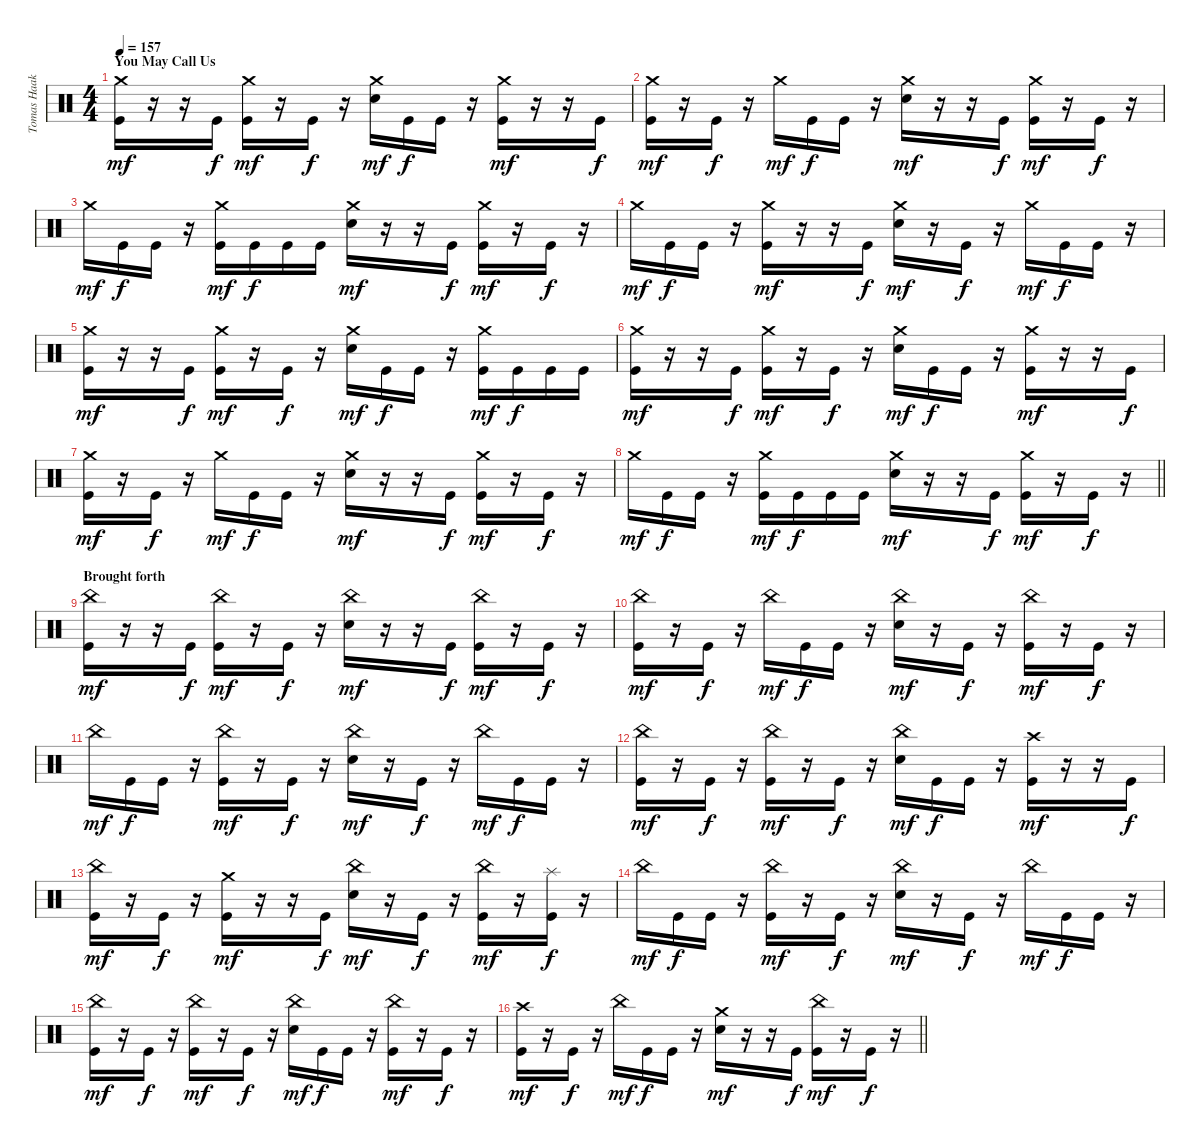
\track ("Tomas Haake (Drums)" "Tomas Haak") {instrument percussion}
\staff {score}
\articulation defaults
\ts (4 4)
\section ("" "You May Call Us")
\tempo 157
\clef neutral
\ks c
("Crash medium (hit)" "Kick (hit)").16{dy mf} r.16 r.16 "Kick (hit)".16{dy f} ("Crash medium (hit)" "Kick (hit)").16{dy mf} r.16 "Kick (hit)".16{dy f} r.16 ("Crash medium (hit)" "Electric Snare (hit)").16{dy mf} "Kick (hit)".16{dy f} "Kick (hit)".16 r.16 ("Crash medium (hit)" "Kick (hit)").16{dy mf} r.16 r.16 "Kick (hit)".16{dy f} |
("Crash medium (hit)" "Kick (hit)").16{dy mf} r.16 "Kick (hit)".16{dy f} r.16 "Crash medium (hit)".16{dy mf} "Kick (hit)".16{dy f} "Kick (hit)".16 r.16 ("Crash medium (hit)" "Electric Snare (hit)").16{dy mf} r.16 r.16 "Kick (hit)".16{dy f} ("Crash medium (hit)" "Kick (hit)").16{dy mf} r.16 "Kick (hit)".16{dy f} r.16 |
"Crash medium (hit)".16{dy mf} "Kick (hit)".16{dy f} "Kick (hit)".16 r.16 ("Crash medium (hit)" "Kick (hit)").16{dy mf} "Kick (hit)".16{dy f} "Kick (hit)".16 "Kick (hit)".16 ("Crash medium (hit)" "Electric Snare (hit)").16{dy mf} r.16 r.16 "Kick (hit)".16{dy f} ("Crash medium (hit)" "Kick (hit)").16{dy mf} r.16 "Kick (hit)".16{dy f} r.16 |
"Crash medium (hit)".16{dy mf} "Kick (hit)".16{dy f} "Kick (hit)".16 r.16 ("Crash medium (hit)" "Kick (hit)").16{dy mf} r.16 r.16 "Kick (hit)".16{dy f} ("Crash medium (hit)" "Electric Snare (hit)").16{dy mf} r.16 "Kick (hit)".16{dy f} r.16 "Crash medium (hit)".16{dy mf} "Kick (hit)".16{dy f} "Kick (hit)".16 r.16 |
("Crash medium (hit)" "Kick (hit)").16{dy mf} r.16 r.16 "Kick (hit)".16{dy f} ("Crash medium (hit)" "Kick (hit)").16{dy mf} r.16 "Kick (hit)".16{dy f} r.16 ("Crash medium (hit)" "Electric Snare (hit)").16{dy mf} "Kick (hit)".16{dy f} "Kick (hit)".16 r.16 ("Crash medium (hit)" "Kick (hit)").16{dy mf} "Kick (hit)".16{dy f} "Kick (hit)".16 "Kick (hit)".16 |
("Crash medium (hit)" "Kick (hit)").16{dy mf} r.16 r.16 "Kick (hit)".16{dy f} ("Crash medium (hit)" "Kick (hit)").16{dy mf} r.16 "Kick (hit)".16{dy f} r.16 ("Crash medium (hit)" "Electric Snare (hit)").16{dy mf} "Kick (hit)".16{dy f} "Kick (hit)".16 r.16 ("Crash medium (hit)" "Kick (hit)").16{dy mf} r.16 r.16 "Kick (hit)".16{dy f} |
("Crash medium (hit)" "Kick (hit)").16{dy mf} r.16 "Kick (hit)".16{dy f} r.16 "Crash medium (hit)".16{dy mf} "Kick (hit)".16{dy f} "Kick (hit)".16 r.16 ("Crash medium (hit)" "Electric Snare (hit)").16{dy mf} r.16 r.16 "Kick (hit)".16{dy f} ("Crash medium (hit)" "Kick (hit)").16{dy mf} r.16 "Kick (hit)".16{dy f} r.16 |
\barLineRight lightlight "Crash medium (hit)".16{dy mf} "Kick (hit)".16{dy f} "Kick (hit)".16
r.16 ("Crash medium (hit)" "Kick (hit)").16{dy mf} "Kick (hit)".16{dy f} "Kick (hit)".16 "Kick (hit)".16 ("Crash medium (hit)" "Electric Snare (hit)").16{dy mf} r.16 r.16 "Kick (hit)".16{dy f} ("Crash medium (hit)" "Kick (hit)").16{dy mf} r.16 "Kick (hit)".16{dy f} r.16 |
\section ("" "Brought forth")
("China (hit)" "Kick (hit)").16{dy mf} r.16 r.16 "Kick (hit)".16{dy f} ("China (hit)" "Kick (hit)").16{dy mf} r.16 "Kick (hit)".16{dy f} r.16 ("China (hit)" "Electric Snare (hit)").16{dy mf} r.16 r.16 "Kick (hit)".16{dy f} ("China (hit)" "Kick (hit)").16{dy mf} r.16 "Kick (hit)".16{dy f} r.16 |
("China (hit)" "Kick (hit)").16{dy mf} r.16 "Kick (hit)".16{dy f} r.16 "China (hit)".16{dy mf} "Kick (hit)".16{dy f} "Kick (hit)".16 r.16 ("China (hit)" "Electric Snare (hit)").16{dy mf} r.16 "Kick (hit)".16{dy f} r.16 ("China (hit)" "Kick (hit)").16{dy mf} r.16 "Kick (hit)".16{dy f} r.16 |
"China (hit)".16{dy mf} "Kick (hit)".16{dy f} "Kick (hit)".16 r.16 ("China (hit)" "Kick (hit)").16{dy mf} r.16 "Kick (hit)".16{dy f} r.16 ("China (hit)" "Electric Snare (hit)").16{dy mf} r.16 "Kick (hit)".16{dy f} r.16 "China (hit)".16{dy mf} "Kick (hit)".16{dy f} "Kick (hit)".16 r.16 |
("China (hit)" "Kick (hit)").16{dy mf} r.16 "Kick (hit)".16{dy f} r.16 ("China (hit)" "Kick (hit)").16{dy mf} r.16 "Kick (hit)".16{dy f} r.16 ("China (hit)" "Electric Snare (hit)").16{dy mf} "Kick (hit)".16{dy f} "Kick (hit)".16 r.16 ("Crash high (hit)" "Kick (hit)").16{dy mf} r.16 r.16 "Kick (hit)".16{dy f} |
("China (hit)" "Kick (hit)").16{dy mf} r.16 "Kick (hit)".16{dy f} r.16 ("Crash medium (hit)" "Kick (hit)").16{dy mf} r.16 r.16 "Kick (hit)".16{dy f} ("China (hit)" "Electric Snare (hit)").16{dy mf} r.16 "Kick (hit)".16{dy f} r.16 ("China (hit)" "Kick (hit)").16{dy mf} r.16 ("Splash (hit)" "Kick (hit)").16{dy f} r.16 |
"China (hit)".16{dy mf} "Kick (hit)".16{dy f} "Kick (hit)".16 r.16 ("China (hit)" "Kick (hit)").16{dy mf} r.16 "Kick (hit)".16{dy f} r.16 ("China (hit)" "Electric Snare (hit)").16{dy mf} r.16 "Kick (hit)".16{dy f} r.16 "China (hit)".16{dy mf} "Kick (hit)".16{dy f} "Kick (hit)".16 r.16 |
("China (hit)" "Kick (hit)").16{dy mf} r.16 "Kick (hit)".16{dy f} r.16 ("China (hit)" "Kick (hit)").16{dy mf} r.16 "Kick (hit)".16{dy f} r.16 ("China (hit)" "Electric Snare (hit)").16{dy mf} "Kick (hit)".16{dy f} "Kick (hit)".16 r.16 ("China (hit)" "Kick (hit)").16{dy mf} r.16 "Kick (hit)".16{dy f} r.16 |
\barLineRight lightlight
("Crash high (hit)" "Kick (hit)").16{dy mf} r.16 "Kick (hit)".16{dy f} r.16 "China (hit)".16{dy mf} "Kick (hit)".16{dy f} "Kick (hit)".16 r.16 ("Crash medium (hit)" "Electric Snare (hit)").16{dy mf} r.16 r.16 "Kick (hit)".16{dy f} ("China (hit)" "Kick (hit)").16{dy mf} r.16 "Kick (hit)".16{dy f} r.16
